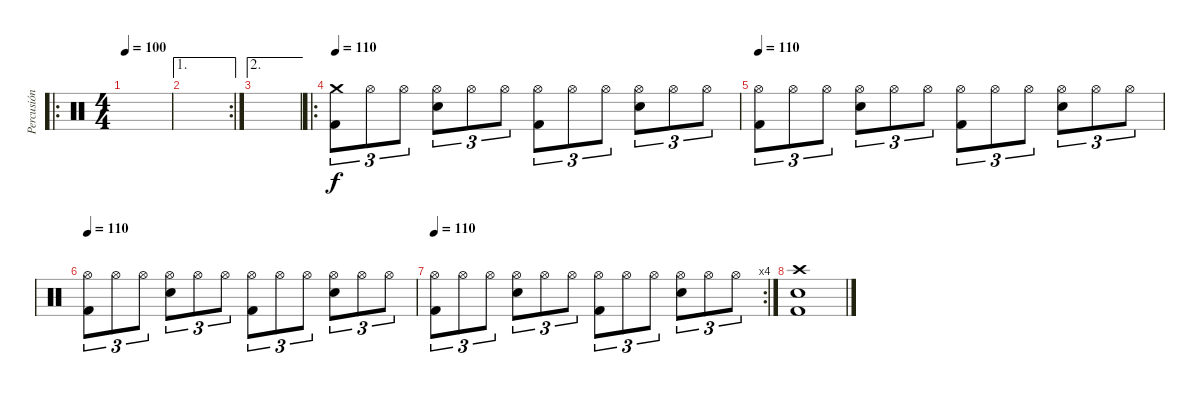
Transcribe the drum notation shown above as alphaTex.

\track ("Percusión" "Percusión") {instrument percussion}
\staff {score}
\articulation defaults
\ro
\ts (4 4)
\tempo 100
\clef neutral
\ks c
|
\ae 1
\rc 2
|
\ae 2
|
\ro
\tempo 110
("Crash medium (hit)" "Kick (hit) 2").8{tu (3 2)} "Hi-Hat (open)".8{tu (3 2)} "Hi-Hat (open)".8{tu (3 2)} ("Hi-Hat (open)" "Electric Snare (hit)").8{tu (3 2)} "Hi-Hat (open)".8{tu (3 2)} "Hi-Hat (open)".8{tu (3 2)} ("Hi-Hat (open)" "Kick (hit) 2").8{tu (3 2)} "Hi-Hat (open)".8{tu (3 2)} "Hi-Hat (open)".8{tu (3 2)} ("Hi-Hat (open)" "Electric Snare (hit)").8{tu (3 2)} "Hi-Hat (open)".8{tu (3 2)} "Hi-Hat (open)".8{tu (3 2)} |
\tempo 110
("Hi-Hat (open)" "Kick (hit) 2").8{tu (3 2)} "Hi-Hat (open)".8{tu (3 2)} "Hi-Hat (open)".8{tu (3 2)} ("Hi-Hat (open)" "Electric Snare (hit)").8{tu (3 2)} "Hi-Hat (open)".8{tu (3 2)} "Hi-Hat (open)".8{tu (3 2)} ("Hi-Hat (open)" "Kick (hit) 2").8{tu (3 2)} "Hi-Hat (open)".8{tu (3 2)} "Hi-Hat (open)".8{tu (3 2)} ("Hi-Hat (open)" "Electric Snare (hit)").8{tu (3 2)} "Hi-Hat (open)".8{tu (3 2)} "Hi-Hat (open)".8{tu (3 2)} |
\tempo 110
("Hi-Hat (open)" "Kick (hit) 2").8{tu (3 2)} "Hi-Hat (open)".8{tu (3 2)} "Hi-Hat (open)".8{tu (3 2)} ("Hi-Hat (open)" "Electric Snare (hit)").8{tu (3 2)} "Hi-Hat (open)".8{tu (3 2)} "Hi-Hat (open)".8{tu (3 2)} ("Hi-Hat (open)" "Kick (hit) 2").8{tu (3 2)} "Hi-Hat (open)".8{tu (3 2)} "Hi-Hat (open)".8{tu (3 2)} ("Hi-Hat (open)" "Electric Snare (hit)").8{tu (3 2)} "Hi-Hat (open)".8{tu (3 2)} "Hi-Hat (open)".8{tu (3 2)} |
\rc 4
\tempo 110
("Hi-Hat (open)" "Kick (hit) 2").8{tu (3 2)} "Hi-Hat (open)".8{tu (3 2)} "Hi-Hat (open)".8{tu (3 2)} ("Hi-Hat (open)" "Electric Snare (hit)").8{tu (3 2)} "Hi-Hat (open)".8{tu (3 2)} "Hi-Hat (open)".8{tu (3 2)} ("Hi-Hat (open)" "Kick (hit) 2").8{tu (3 2)} "Hi-Hat (open)".8{tu (3 2)} "Hi-Hat (open)".8{tu (3 2)} ("Hi-Hat (open)" "Electric Snare (hit)").8{tu (3 2)} "Hi-Hat (open)".8{tu (3 2)} "Hi-Hat (open)".8{tu (3 2)} |
("Crash high (hit)" "Snare (hit) 2" "Kick (hit) 2").1
